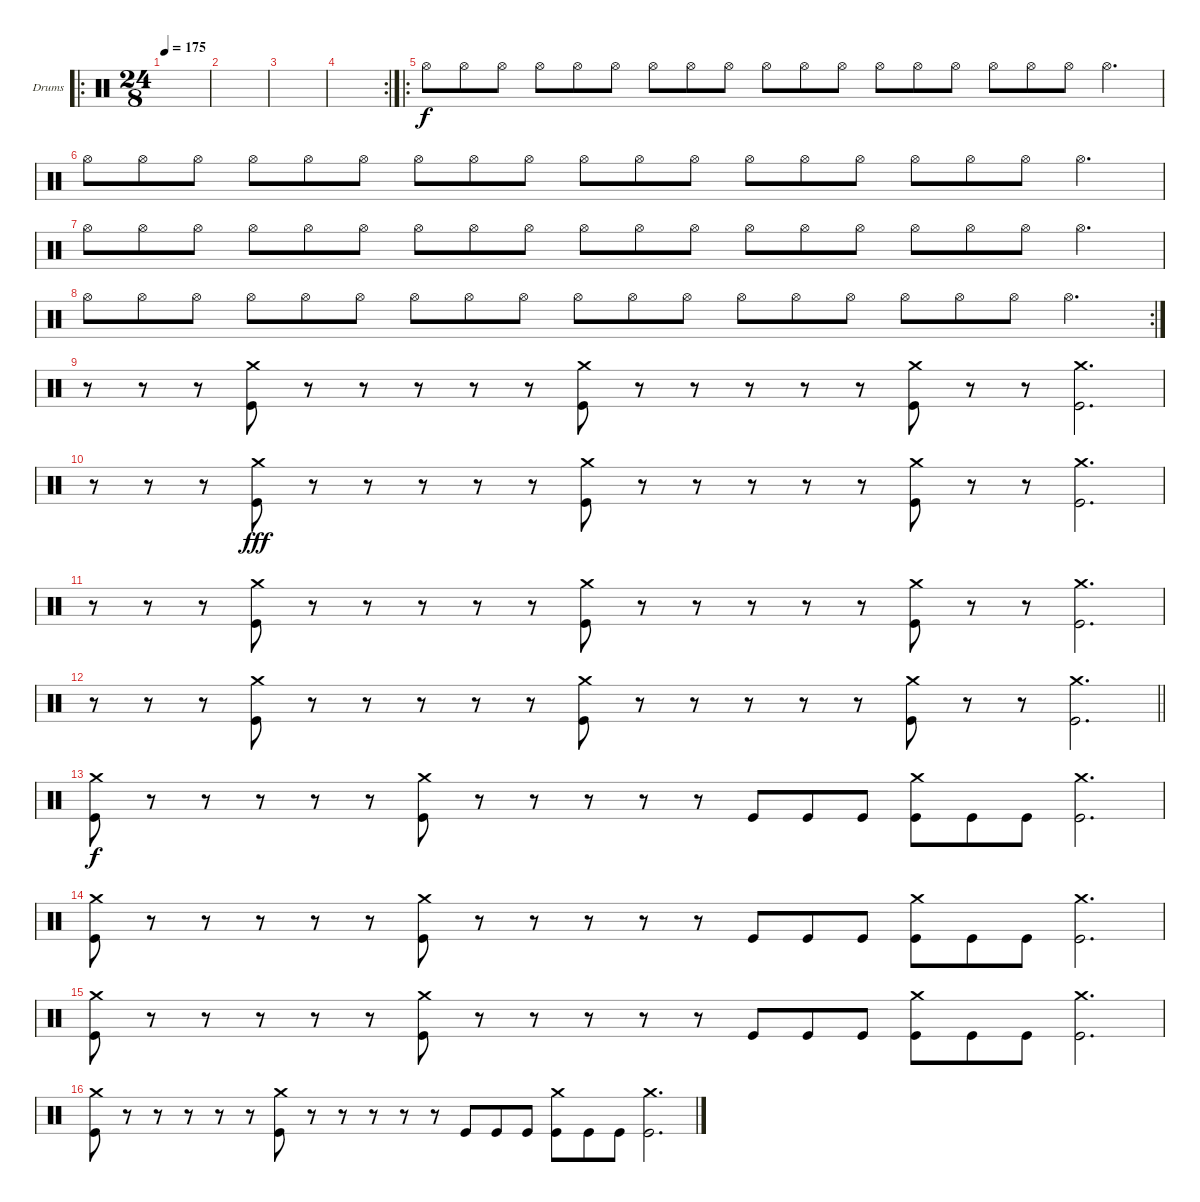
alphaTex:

\defaultSystemsLayout 4
\bracketExtendMode groupsimilarinstruments
\firstSystemTrackNameOrientation horizontal
\otherSystemsTrackNameOrientation horizontal
\track ("Сеня(Drumkit)" "Drums") {instrument percussion}
\staff {score}
\articulation defaults
\ro
\ts (24 8)
\tempo 175
\clef neutral
\scale
0.5
\ks c
|
\scale
0.25 |
\scale
0.25 |
\rc 2
\scale
0.355932 |
\ro
\scale
0.322034 "Hi-Hat (open)".8 "Hi-Hat (open)".8 "Hi-Hat (open)".8 "Hi-Hat (open)".8 "Hi-Hat (open)".8 "Hi-Hat (open)".8 "Hi-Hat (open)".8 "Hi-Hat (open)".8 "Hi-Hat (open)".8 "Hi-Hat (open)".8 "Hi-Hat (open)".8 "Hi-Hat (open)".8 "Hi-Hat (open)".8 "Hi-Hat (open)".8 "Hi-Hat (open)".8 "Hi-Hat (open)".8 "Hi-Hat (open)".8 "Hi-Hat (open)".8 "Hi-Hat (open)".2{d} |
\scale
0.322034 "Hi-Hat (open)".8 "Hi-Hat (open)".8 "Hi-Hat (open)".8 "Hi-Hat (open)".8 "Hi-Hat (open)".8 "Hi-Hat (open)".8 "Hi-Hat (open)".8 "Hi-Hat (open)".8 "Hi-Hat (open)".8 "Hi-Hat (open)".8 "Hi-Hat (open)".8 "Hi-Hat (open)".8 "Hi-Hat (open)".8 "Hi-Hat (open)".8 "Hi-Hat (open)".8 "Hi-Hat (open)".8 "Hi-Hat (open)".8 "Hi-Hat (open)".8 "Hi-Hat (open)".2{d} |
\scale
0.311475 "Hi-Hat (open)".8 "Hi-Hat (open)".8 "Hi-Hat (open)".8 "Hi-Hat (open)".8 "Hi-Hat (open)".8 "Hi-Hat (open)".8 "Hi-Hat (open)".8 "Hi-Hat (open)".8 "Hi-Hat (open)".8 "Hi-Hat (open)".8 "Hi-Hat (open)".8 "Hi-Hat (open)".8 "Hi-Hat (open)".8 "Hi-Hat (open)".8 "Hi-Hat (open)".8 "Hi-Hat (open)".8 "Hi-Hat (open)".8 "Hi-Hat (open)".8 "Hi-Hat (open)".2{d} |
\rc 2
\scale
0.311475 "Hi-Hat (open)".8 "Hi-Hat (open)".8 "Hi-Hat (open)".8 "Hi-Hat (open)".8 "Hi-Hat (open)".8 "Hi-Hat (open)".8 "Hi-Hat (open)".8 "Hi-Hat (open)".8 "Hi-Hat (open)".8 "Hi-Hat (open)".8 "Hi-Hat (open)".8 "Hi-Hat (open)".8 "Hi-Hat (open)".8 "Hi-Hat (open)".8 "Hi-Hat (open)".8 "Hi-Hat (open)".8 "Hi-Hat (open)".8 "Hi-Hat (open)".8 "Hi-Hat (open)".2{d} |
\scale
0.377049 r.8 r.8 r.8 ("Crash medium (hit)" "Kick (hit)").8 r.8 r.8 r.8 r.8 r.8 ("Crash medium (hit)" "Kick (hit)").8 r.8 r.8 r.8 r.8 r.8 ("Crash medium (hit)" "Kick (hit)").8 r.8 r.8 ("Crash medium (hit)" "Kick (hit)").2{d} |
\scale
0.322034 r.8 r.8 r.8 ("Crash medium (hit)" "Kick (hit)").8{dy fff} r.8 r.8 r.8 r.8 r.8 ("Crash medium (hit)" "Kick (hit)").8 r.8 r.8 r.8 r.8 r.8 ("Crash medium (hit)" "Kick (hit)").8 r.8 r.8 ("Crash medium (hit)" "Kick (hit)").2{d} |
\scale
0.322034 r.8 r.8 r.8 ("Crash medium (hit)" "Kick (hit)").8 r.8 r.8 r.8 r.8 r.8 ("Crash medium (hit)" "Kick (hit)").8 r.8 r.8 r.8 r.8 r.8 ("Crash medium (hit)" "Kick (hit)").8 r.8 r.8 ("Crash medium (hit)" "Kick (hit)").2{d} |
\scale
0.355932
\barLineRight lightlight
r.8 r.8 r.8 ("Crash medium (hit)" "Kick (hit)").8 r.8 r.8 r.8 r.8 r.8 ("Crash medium (hit)" "Kick (hit)").8 r.8 r.8 r.8 r.8 r.8 ("Crash medium (hit)" "Kick (hit)").8 r.8 r.8 ("Crash medium (hit)" "Kick (hit)").2{d} |
\scale
0.377049 ("Crash medium (hit)" "Kick (hit)").8{dy f} r.8 r.8 r.8 r.8 r.8 ("Crash medium (hit)" "Kick (hit)").8 r.8 r.8 r.8 r.8 r.8 "Kick (hit)".8 "Kick (hit)".8 "Kick (hit)".8 ("Crash medium (hit)" "Kick (hit)").8 "Kick (hit)".8 "Kick (hit)".8 ("Crash medium (hit)" "Kick (hit)").2{d} |
\scale
0.311475 ("Crash medium (hit)" "Kick (hit)").8 r.8 r.8 r.8 r.8 r.8 ("Crash medium (hit)" "Kick (hit)").8 r.8 r.8 r.8 r.8 r.8 "Kick (hit)".8 "Kick (hit)".8 "Kick (hit)".8 ("Crash medium (hit)" "Kick (hit)").8 "Kick (hit)".8 "Kick (hit)".8 ("Crash medium (hit)" "Kick (hit)").2{d} |
\scale
0.311475 ("Crash medium (hit)" "Kick (hit)").8 r.8 r.8 r.8 r.8 r.8 ("Crash medium (hit)" "Kick (hit)").8 r.8 r.8 r.8 r.8 r.8 "Kick (hit)".8 "Kick (hit)".8 "Kick (hit)".8 ("Crash medium (hit)" "Kick (hit)").8 "Kick (hit)".8 "Kick (hit)".8 ("Crash medium (hit)" "Kick (hit)").2{d} |
("Crash medium (hit)" "Kick (hit)").8 r.8 r.8 r.8 r.8 r.8 ("Crash medium (hit)" "Kick (hit)").8 r.8 r.8 r.8 r.8 r.8 "Kick (hit)".8 "Kick (hit)".8 "Kick (hit)".8 ("Crash medium (hit)" "Kick (hit)").8 "Kick (hit)".8 "Kick (hit)".8 ("Crash medium (hit)" "Kick (hit)").2{d}
